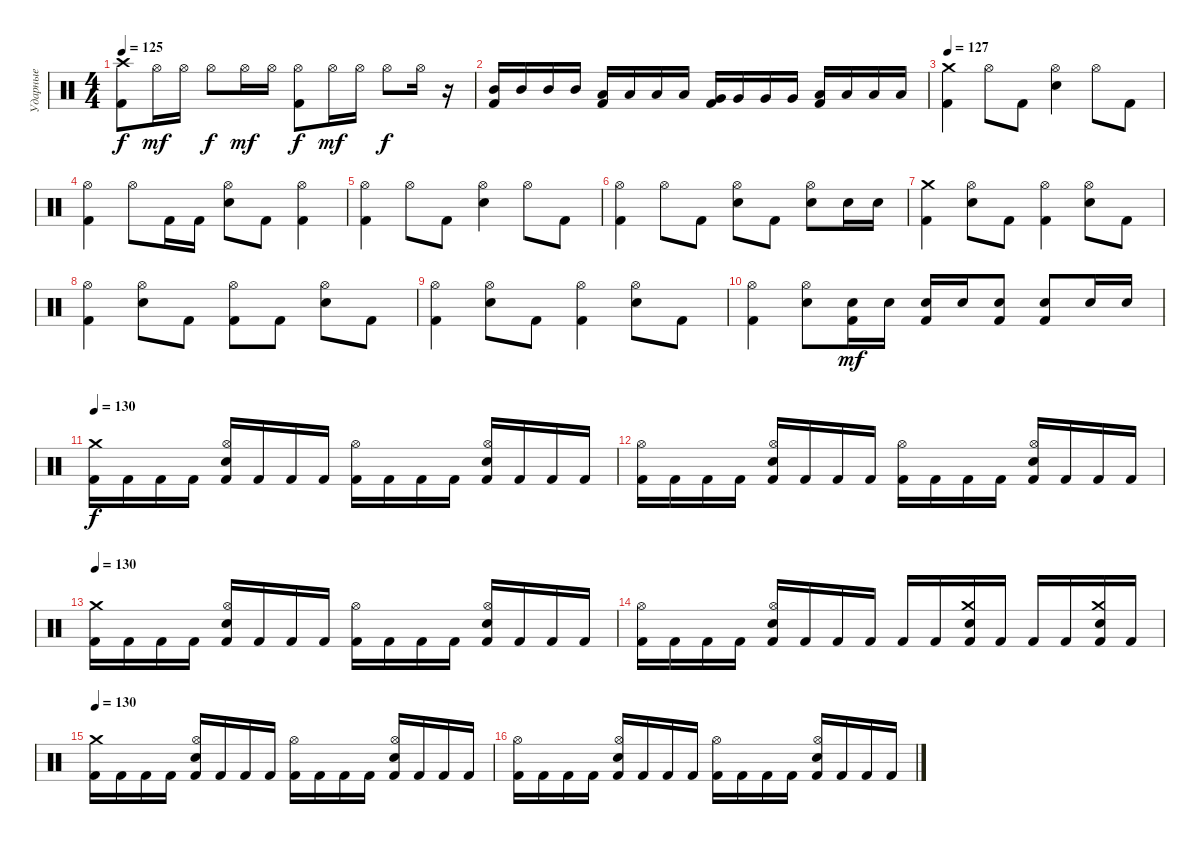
\track ("Ударные" "Ударные") {instrument percussion}
\staff {score}
\articulation defaults
\ts (4 4)
\tempo 125
\clef neutral
\ks c
("Crash high (hit)" "Kick (hit) 2").8{dy f} "Hi-Hat (open)".16{dy mf} "Hi-Hat (open)".16 "Hi-Hat (open)".8{dy f} "Hi-Hat (open)".16{dy mf} "Hi-Hat (open)".16 ("Hi-Hat (open)" "Kick (hit) 2").8{dy f} "Hi-Hat (open)".16{dy mf} "Hi-Hat (open)".16 "Hi-Hat (open)".8{dy f} "Hi-Hat (open)".16 r.16 |
("Mid Tom (hit)" "Kick (hit) 2").16 "Mid Tom (hit)".16 "Mid Tom (hit)".16 "Mid Tom (hit)".16 ("Low Tom (hit)" "Kick (hit) 2").16 "Low Tom (hit)".16 "Low Tom (hit)".16 "Low Tom (hit)".16 ("Very Low Tom (hit)" "Kick (hit) 2").16 "Very Low Tom (hit)".16 "Very Low Tom (hit)".16 "Very Low Tom (hit)".16 ("Low Floor Tom (hit)" "Kick (hit) 2").16 "Low Floor Tom (hit)".16 "Low Floor Tom (hit)".16 "Low Floor Tom (hit)".16 |
\tempo 127
("Crash medium (hit)" "Kick (hit) 2").4 "Hi-Hat (open)".8 "Kick (hit) 2".8 ("Hi-Hat (open)" "Electric Snare (hit)").4 "Hi-Hat (open)".8 "Kick (hit) 2".8 |
("Hi-Hat (open)" "Kick (hit) 2").4 "Hi-Hat (open)".8 "Kick (hit) 2".16 "Kick (hit) 2".16 ("Hi-Hat (open)" "Electric Snare (hit)").8 "Kick (hit) 2".8 ("Hi-Hat (open)" "Kick (hit) 2").4 |
("Hi-Hat (open)" "Kick (hit) 2").4 "Hi-Hat (open)".8 "Kick (hit) 2".8 ("Hi-Hat (open)" "Electric Snare (hit)").4 "Hi-Hat (open)".8 "Kick (hit) 2".8 |
("Hi-Hat (open)" "Kick (hit) 2").4 "Hi-Hat (open)".8 "Kick (hit) 2".8 ("Hi-Hat (open)" "Electric Snare (hit)").8 "Kick (hit) 2".8 ("Hi-Hat (open)" "Electric Snare (hit)").8 "Electric Snare (hit)".16 "Electric Snare (hit)".16 |
("Crash medium (hit)" "Kick (hit) 2").4 ("Hi-Hat (open)" "Electric Snare (hit)").8 "Kick (hit) 2".8 ("Hi-Hat (open)" "Kick (hit) 2").4 ("Hi-Hat (open)" "Electric Snare (hit)").8 "Kick (hit) 2".8 |
("Hi-Hat (open)" "Kick (hit) 2").4 ("Hi-Hat (open)" "Electric Snare (hit)").8 "Kick (hit) 2".8 ("Hi-Hat (open)" "Kick (hit) 2").8 "Kick (hit) 2".8 ("Hi-Hat (open)" "Electric Snare (hit)").8 "Kick (hit) 2".8 |
("Hi-Hat (open)" "Kick (hit) 2").4 ("Hi-Hat (open)" "Electric Snare (hit)").8 "Kick (hit) 2".8 ("Hi-Hat (open)" "Kick (hit) 2").4 ("Hi-Hat (open)" "Electric Snare (hit)").8 "Kick (hit) 2".8 |
("Hi-Hat (open)" "Kick (hit) 2").4 ("Hi-Hat (open)" "Electric Snare (hit)").8 ("Electric Snare (hit)" "Kick (hit) 2").16{dy mf} "Electric Snare (hit)".16 ("Electric Snare (hit)" "Kick (hit) 2").16 "Electric Snare (hit)".16 ("Electric Snare (hit)" "Kick (hit) 2").8 ("Electric Snare (hit)" "Kick (hit) 2").8 "Electric Snare (hit)".16 "Electric Snare (hit)".16 |
\tempo 130
("Crash medium (hit)" "Kick (hit) 2").16{dy f} "Kick (hit) 2".16 "Kick (hit) 2".16 "Kick (hit) 2".16 ("Hi-Hat (open)" "Electric Snare (hit)" "Kick (hit) 2").16 "Kick (hit) 2".16 "Kick (hit) 2".16 "Kick (hit) 2".16 ("Hi-Hat (open)" "Kick (hit) 2").16 "Kick (hit) 2".16 "Kick (hit) 2".16 "Kick (hit) 2".16 ("Hi-Hat (open)" "Electric Snare (hit)" "Kick (hit) 2").16 "Kick (hit) 2".16 "Kick (hit) 2".16 "Kick (hit) 2".16 |
("Hi-Hat (open)" "Kick (hit) 2").16 "Kick (hit) 2".16 "Kick (hit) 2".16 "Kick (hit) 2".16 ("Hi-Hat (open)" "Electric Snare (hit)" "Kick (hit) 2").16 "Kick (hit) 2".16 "Kick (hit) 2".16 "Kick (hit) 2".16 ("Hi-Hat (open)" "Kick (hit) 2").16 "Kick (hit) 2".16 "Kick (hit) 2".16 "Kick (hit) 2".16 ("Hi-Hat (open)" "Electric Snare (hit)" "Kick (hit) 2").16 "Kick (hit) 2".16 "Kick (hit) 2".16 "Kick (hit) 2".16 |
\tempo 130
("Crash medium (hit)" "Kick (hit) 2").16 "Kick (hit) 2".16 "Kick (hit) 2".16 "Kick (hit) 2".16 ("Hi-Hat (open)" "Electric Snare (hit)" "Kick (hit) 2").16 "Kick (hit) 2".16 "Kick (hit) 2".16 "Kick (hit) 2".16 ("Hi-Hat (open)" "Kick (hit) 2").16 "Kick (hit) 2".16 "Kick (hit) 2".16 "Kick (hit) 2".16 ("Hi-Hat (open)" "Electric Snare (hit)" "Kick (hit) 2").16 "Kick (hit) 2".16 "Kick (hit) 2".16 "Kick (hit) 2".16 |
("Hi-Hat (open)" "Kick (hit) 2").16 "Kick (hit) 2".16 "Kick (hit) 2".16 "Kick (hit) 2".16 ("Hi-Hat (open)" "Electric Snare (hit)" "Kick (hit) 2").16 "Kick (hit) 2".16 "Kick (hit) 2".16 "Kick (hit) 2".16 "Kick (hit) 2".16 "Kick (hit) 2".16 ("Crash medium (hit)" "Electric Snare (hit)" "Kick (hit) 2").16 "Kick (hit) 2".16 "Kick (hit) 2".16 "Kick (hit) 2".16 ("Crash medium (hit)" "Electric Snare (hit)" "Kick (hit) 2").16 "Kick (hit) 2".16 |
\tempo 130
("Crash medium (hit)" "Kick (hit) 2").16 "Kick (hit) 2".16 "Kick (hit) 2".16 "Kick (hit) 2".16 ("Hi-Hat (open)" "Electric Snare (hit)" "Kick (hit) 2").16 "Kick (hit) 2".16 "Kick (hit) 2".16 "Kick (hit) 2".16 ("Hi-Hat (open)" "Kick (hit) 2").16 "Kick (hit) 2".16 "Kick (hit) 2".16 "Kick (hit) 2".16 ("Hi-Hat (open)" "Electric Snare (hit)" "Kick (hit) 2").16 "Kick (hit) 2".16 "Kick (hit) 2".16 "Kick (hit) 2".16 |
("Hi-Hat (open)" "Kick (hit) 2").16 "Kick (hit) 2".16 "Kick (hit) 2".16 "Kick (hit) 2".16 ("Hi-Hat (open)" "Electric Snare (hit)" "Kick (hit) 2").16 "Kick (hit) 2".16 "Kick (hit) 2".16 "Kick (hit) 2".16 ("Hi-Hat (open)" "Kick (hit) 2").16 "Kick (hit) 2".16 "Kick (hit) 2".16 "Kick (hit) 2".16 ("Hi-Hat (open)" "Electric Snare (hit)" "Kick (hit) 2").16 "Kick (hit) 2".16 "Kick (hit) 2".16 "Kick (hit) 2".16
